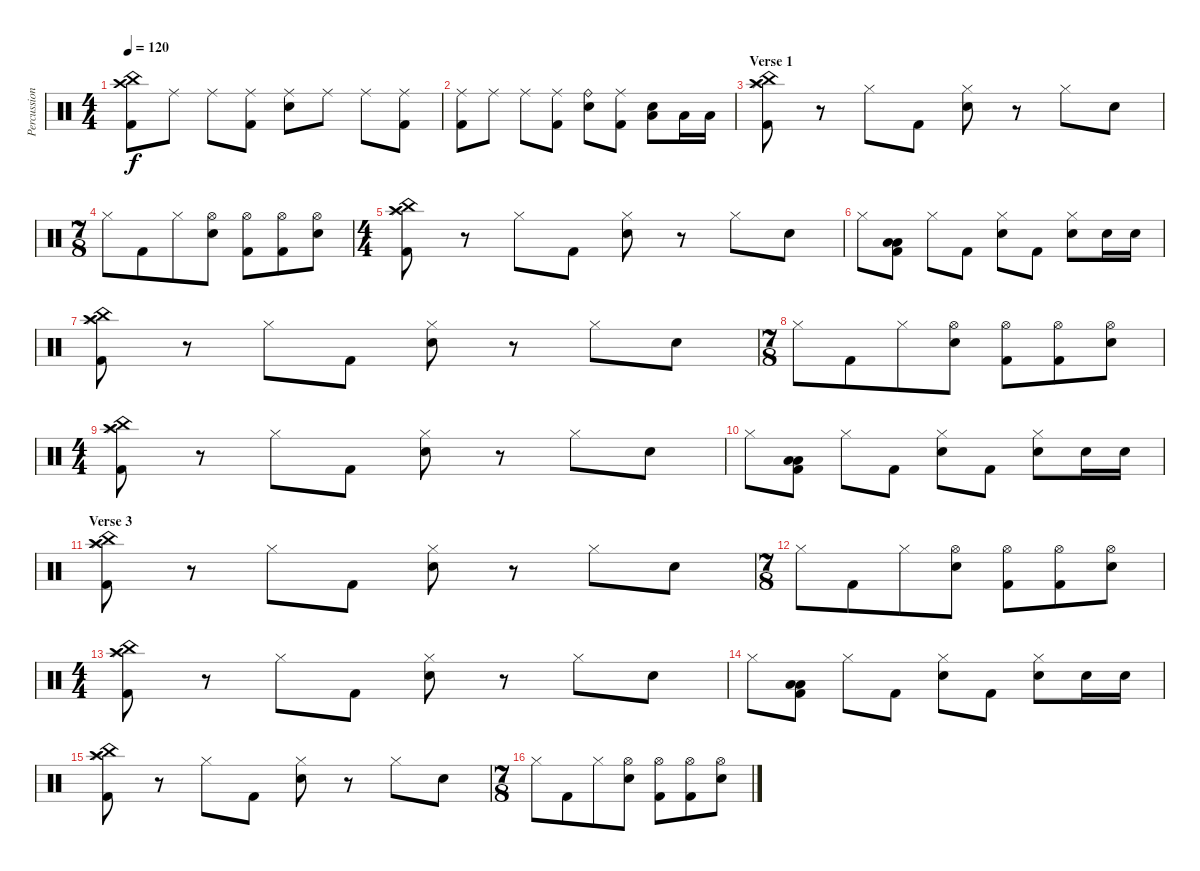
\track ("Percussion" "Percussion") {instrument percussion}
\staff {score}
\articulation defaults
\ts (4 4)
\tempo 120
\clef neutral
\ks c
("China (hit)" "Crash high (hit)" "Kick (hit) 2").8{dy f} "Ride (middle)".8 "Ride (middle)".8 ("Ride (middle)" "Kick (hit) 2").8 ("Ride (middle)" "Electric Snare (hit)").8 "Ride (middle)".8 "Ride (middle)".8 ("Ride (middle)" "Kick (hit) 2").8 |
("Ride (middle)" "Kick (hit) 2").8 "Ride (middle)".8 "Ride (middle)".8 ("Ride (middle)" "Kick (hit) 2").8 ("Ride (bell)" "Electric Snare (hit)").8 ("Ride (middle)" "Kick (hit) 2").8 ("Electric Snare (hit)" "Low Floor Tom (hit)").8 "Low Tom (hit)".16 "Low Floor Tom (hit)".16 |
\section ("" "Verse 1")
("Splash (hit)" "Crash high (hit)" "China (hit)" "Kick (hit) 2").8 r.8 "Hi-Hat (closed)".8 "Kick (hit) 2".8 ("Hi-Hat (closed)" "Electric Snare (hit)").8 r.8 "Hi-Hat (closed)".8 "Electric Snare (hit)".8 |
\ts (7 8)
"Hi-Hat (closed)".8 "Kick (hit) 2".8 "Hi-Hat (closed)".8 ("Hi-Hat (open)" "Electric Snare (hit)").8 ("Hi-Hat (open)" "Kick (hit) 2").8 ("Hi-Hat (open)" "Kick (hit) 2").8 ("Hi-Hat (open)" "Electric Snare (hit)").8 |
\ts (4 4)
("Splash (hit)" "Crash high (hit)" "China (hit)" "Kick (hit) 2").8 r.8 "Hi-Hat (closed)".8 "Kick (hit) 2".8 ("Hi-Hat (closed)" "Electric Snare (hit)").8 r.8 "Hi-Hat (closed)".8 "Electric Snare (hit)".8 |
"Hi-Hat (closed)".8 ("Low Tom (hit)" "Low Floor Tom (hit)" "Kick (hit) 2").8 "Hi-Hat (closed)".8 "Kick (hit) 2".8 ("Hi-Hat (closed)" "Electric Snare (hit)").8 "Kick (hit) 2".8 ("Hi-Hat (closed)" "Electric Snare (hit)").8 "Electric Snare (hit)".16 "Electric Snare (hit)".16 |
("Splash (hit)" "Crash high (hit)" "China (hit)" "Kick (hit) 2").8 r.8 "Hi-Hat (closed)".8 "Kick (hit) 2".8 ("Hi-Hat (closed)" "Electric Snare (hit)").8 r.8 "Hi-Hat (closed)".8 "Electric Snare (hit)".8 |
\ts (7 8)
"Hi-Hat (closed)".8 "Kick (hit) 2".8 "Hi-Hat (closed)".8 ("Hi-Hat (open)" "Electric Snare (hit)").8 ("Hi-Hat (open)" "Kick (hit) 2").8 ("Hi-Hat (open)" "Kick (hit) 2").8 ("Hi-Hat (open)" "Electric Snare (hit)").8 |
\ts (4 4)
("Splash (hit)" "Crash high (hit)" "China (hit)" "Kick (hit) 2").8 r.8 "Hi-Hat (closed)".8 "Kick (hit) 2".8 ("Hi-Hat (closed)" "Electric Snare (hit)").8 r.8 "Hi-Hat (closed)".8 "Electric Snare (hit)".8 |
"Hi-Hat (closed)".8 ("Low Tom (hit)" "Low Floor Tom (hit)" "Kick (hit) 2").8 "Hi-Hat (closed)".8 "Kick (hit) 2".8 ("Hi-Hat (closed)" "Electric Snare (hit)").8 "Kick (hit) 2".8 ("Hi-Hat (closed)" "Electric Snare (hit)").8 "Electric Snare (hit)".16 "Electric Snare (hit)".16 |
\section ("" "Verse 3")
("Splash (hit)" "Crash high (hit)" "China (hit)" "Kick (hit) 2").8 r.8 "Hi-Hat (closed)".8 "Kick (hit) 2".8 ("Hi-Hat (closed)" "Electric Snare (hit)").8 r.8 "Hi-Hat (closed)".8 "Electric Snare (hit)".8 |
\ts (7 8)
"Hi-Hat (closed)".8 "Kick (hit) 2".8 "Hi-Hat (closed)".8 ("Hi-Hat (open)" "Electric Snare (hit)").8 ("Hi-Hat (open)" "Kick (hit) 2").8 ("Hi-Hat (open)" "Kick (hit) 2").8 ("Hi-Hat (open)" "Electric Snare (hit)").8 |
\ts (4 4)
("Splash (hit)" "Crash high (hit)" "China (hit)" "Kick (hit) 2").8 r.8 "Hi-Hat (closed)".8 "Kick (hit) 2".8 ("Hi-Hat (closed)" "Electric Snare (hit)").8 r.8 "Hi-Hat (closed)".8 "Electric Snare (hit)".8 |
"Hi-Hat (closed)".8 ("Low Tom (hit)" "Low Floor Tom (hit)" "Kick (hit) 2").8 "Hi-Hat (closed)".8 "Kick (hit) 2".8 ("Hi-Hat (closed)" "Electric Snare (hit)").8 "Kick (hit) 2".8 ("Hi-Hat (closed)" "Electric Snare (hit)").8 "Electric Snare (hit)".16 "Electric Snare (hit)".16 |
("Splash (hit)" "Crash high (hit)" "China (hit)" "Kick (hit) 2").8 r.8 "Hi-Hat (closed)".8 "Kick (hit) 2".8 ("Hi-Hat (closed)" "Electric Snare (hit)").8 r.8 "Hi-Hat (closed)".8 "Electric Snare (hit)".8 |
\ts (7 8)
"Hi-Hat (closed)".8 "Kick (hit) 2".8 "Hi-Hat (closed)".8 ("Hi-Hat (open)" "Electric Snare (hit)").8 ("Hi-Hat (open)" "Kick (hit) 2").8 ("Hi-Hat (open)" "Kick (hit) 2").8 ("Hi-Hat (open)" "Electric Snare (hit)").8
